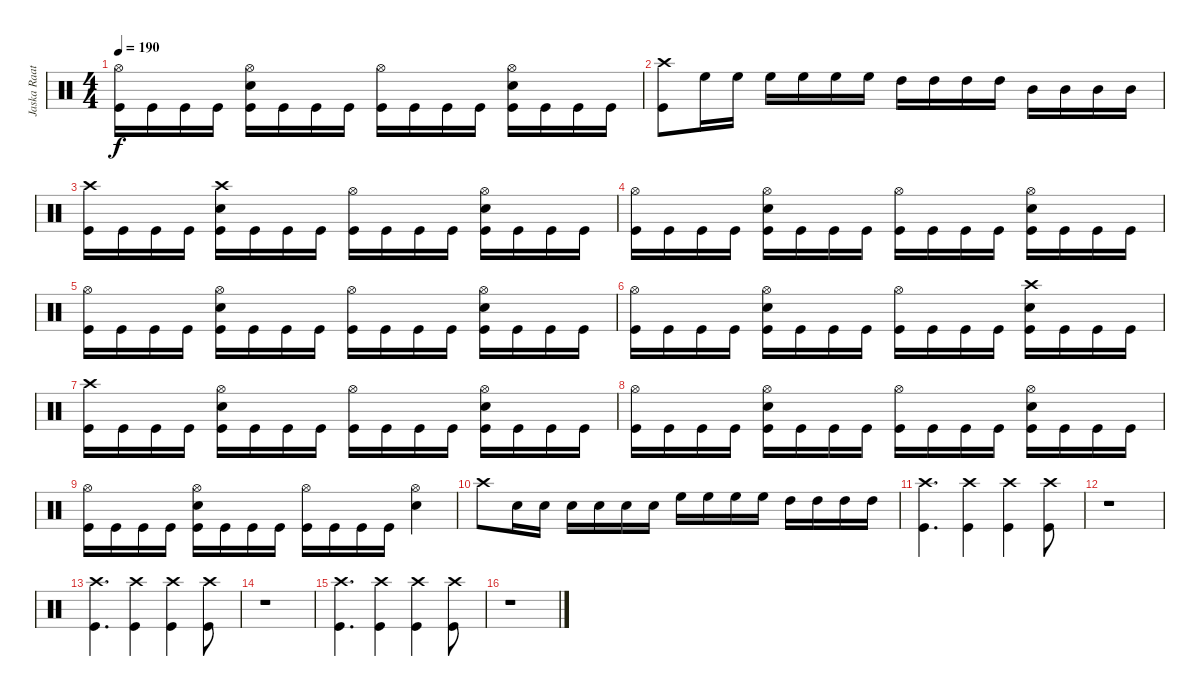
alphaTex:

\track ("Jaska Raatikainen" "Jaska Raat") {instrument percussion}
\staff {score}
\articulation defaults
\ts (4 4)
\tempo 190
\clef neutral
\ks c
("Hi-Hat (open)" "Kick (hit)").16{dy f} "Kick (hit)".16 "Kick (hit)".16 "Kick (hit)".16 ("Hi-Hat (open)" "Snare (hit) 2" "Kick (hit)").16 "Kick (hit)".16 "Kick (hit)".16 "Kick (hit)".16 ("Hi-Hat (open)" "Kick (hit)").16 "Kick (hit)".16 "Kick (hit)".16 "Kick (hit)".16 ("Hi-Hat (open)" "Snare (hit) 2" "Kick (hit)").16 "Kick (hit)".16 "Kick (hit)".16 "Kick (hit)".16 |
("Crash high (hit)" "Kick (hit)").8 "High Floor Tom (hit)".16 "High Floor Tom (hit)".16 "High Floor Tom (hit)".16 "High Floor Tom (hit)".16 "High Floor Tom (hit)".16 "High Floor Tom (hit)".16 "High Tom (hit)".16 "High Tom (hit)".16 "High Tom (hit)".16 "High Tom (hit)".16 "Mid Tom (hit)".16 "Mid Tom (hit)".16 "Mid Tom (hit)".16 "Mid Tom (hit)".16 |
("Crash high (hit)" "Kick (hit)").16 "Kick (hit)".16 "Kick (hit)".16 "Kick (hit)".16 ("Crash high (hit)" "Snare (hit) 2" "Kick (hit)").16 "Kick (hit)".16 "Kick (hit)".16 "Kick (hit)".16 ("Hi-Hat (open)" "Kick (hit)").16 "Kick (hit)".16 "Kick (hit)".16 "Kick (hit)".16 ("Hi-Hat (open)" "Snare (hit) 2" "Kick (hit)").16 "Kick (hit)".16 "Kick (hit)".16 "Kick (hit)".16 |
("Hi-Hat (open)" "Kick (hit)").16 "Kick (hit)".16 "Kick (hit)".16 "Kick (hit)".16 ("Hi-Hat (open)" "Snare (hit) 2" "Kick (hit)").16 "Kick (hit)".16 "Kick (hit)".16 "Kick (hit)".16 ("Hi-Hat (open)" "Kick (hit)").16 "Kick (hit)".16 "Kick (hit)".16 "Kick (hit)".16 ("Hi-Hat (open)" "Snare (hit) 2" "Kick (hit)").16 "Kick (hit)".16 "Kick (hit)".16 "Kick (hit)".16 |
("Hi-Hat (open)" "Kick (hit)").16 "Kick (hit)".16 "Kick (hit)".16 "Kick (hit)".16 ("Hi-Hat (open)" "Snare (hit) 2" "Kick (hit)").16 "Kick (hit)".16 "Kick (hit)".16 "Kick (hit)".16 ("Hi-Hat (open)" "Kick (hit)").16 "Kick (hit)".16 "Kick (hit)".16 "Kick (hit)".16 ("Hi-Hat (open)" "Snare (hit) 2" "Kick (hit)").16 "Kick (hit)".16 "Kick (hit)".16 "Kick (hit)".16 |
("Hi-Hat (open)" "Kick (hit)").16 "Kick (hit)".16 "Kick (hit)".16 "Kick (hit)".16 ("Hi-Hat (open)" "Snare (hit) 2" "Kick (hit)").16 "Kick (hit)".16 "Kick (hit)".16 "Kick (hit)".16 ("Hi-Hat (open)" "Kick (hit)").16 "Kick (hit)".16 "Kick (hit)".16 "Kick (hit)".16 ("Crash high (hit)" "Snare (hit) 2" "Kick (hit)").16 "Kick (hit)".16 "Kick (hit)".16 "Kick (hit)".16 |
("Crash high (hit)" "Kick (hit)").16 "Kick (hit)".16 "Kick (hit)".16 "Kick (hit)".16 ("Hi-Hat (open)" "Snare (hit) 2" "Kick (hit)").16 "Kick (hit)".16 "Kick (hit)".16 "Kick (hit)".16 ("Hi-Hat (open)" "Kick (hit)").16 "Kick (hit)".16 "Kick (hit)".16 "Kick (hit)".16 ("Hi-Hat (open)" "Snare (hit) 2" "Kick (hit)").16 "Kick (hit)".16 "Kick (hit)".16 "Kick (hit)".16 |
("Hi-Hat (open)" "Kick (hit)").16 "Kick (hit)".16 "Kick (hit)".16 "Kick (hit)".16 ("Hi-Hat (open)" "Snare (hit) 2" "Kick (hit)").16 "Kick (hit)".16 "Kick (hit)".16 "Kick (hit)".16 ("Hi-Hat (open)" "Kick (hit)").16 "Kick (hit)".16 "Kick (hit)".16 "Kick (hit)".16 ("Hi-Hat (open)" "Snare (hit) 2" "Kick (hit)").16 "Kick (hit)".16 "Kick (hit)".16 "Kick (hit)".16 |
("Hi-Hat (open)" "Kick (hit)").16 "Kick (hit)".16 "Kick (hit)".16 "Kick (hit)".16 ("Hi-Hat (open)" "Snare (hit) 2" "Kick (hit)").16 "Kick (hit)".16 "Kick (hit)".16 "Kick (hit)".16 ("Hi-Hat (open)" "Kick (hit)").16 "Kick (hit)".16 "Kick (hit)".16 "Kick (hit)".16 ("Hi-Hat (open)" "Snare (hit) 2").4 |
"Crash high (hit)".8 "Snare (hit) 2".16 "Snare (hit) 2".16 "Snare (hit) 2".16 "Snare (hit) 2".16 "Snare (hit) 2".16 "Snare (hit) 2".16 "High Floor Tom (hit)".16 "High Floor Tom (hit)".16 "High Floor Tom (hit)".16 "High Floor Tom (hit)".16 "High Tom (hit)".16 "High Tom (hit)".16 "High Tom (hit)".16 "High Tom (hit)".16 |
("Crash high (hit)" "Kick (hit)").4{d} ("Crash high (hit)" "Kick (hit)").4 ("Crash high (hit)" "Kick (hit)").4 ("Crash high (hit)" "Kick (hit)").8 |
r.1 |
("Crash high (hit)" "Kick (hit)").4{d} ("Crash high (hit)" "Kick (hit)").4 ("Crash high (hit)" "Kick (hit)").4 ("Crash high (hit)" "Kick (hit)").8 |
r.1 |
("Crash high (hit)" "Kick (hit)").4{d} ("Crash high (hit)" "Kick (hit)").4 ("Crash high (hit)" "Kick (hit)").4 ("Crash high (hit)" "Kick (hit)").8 |
r.1
